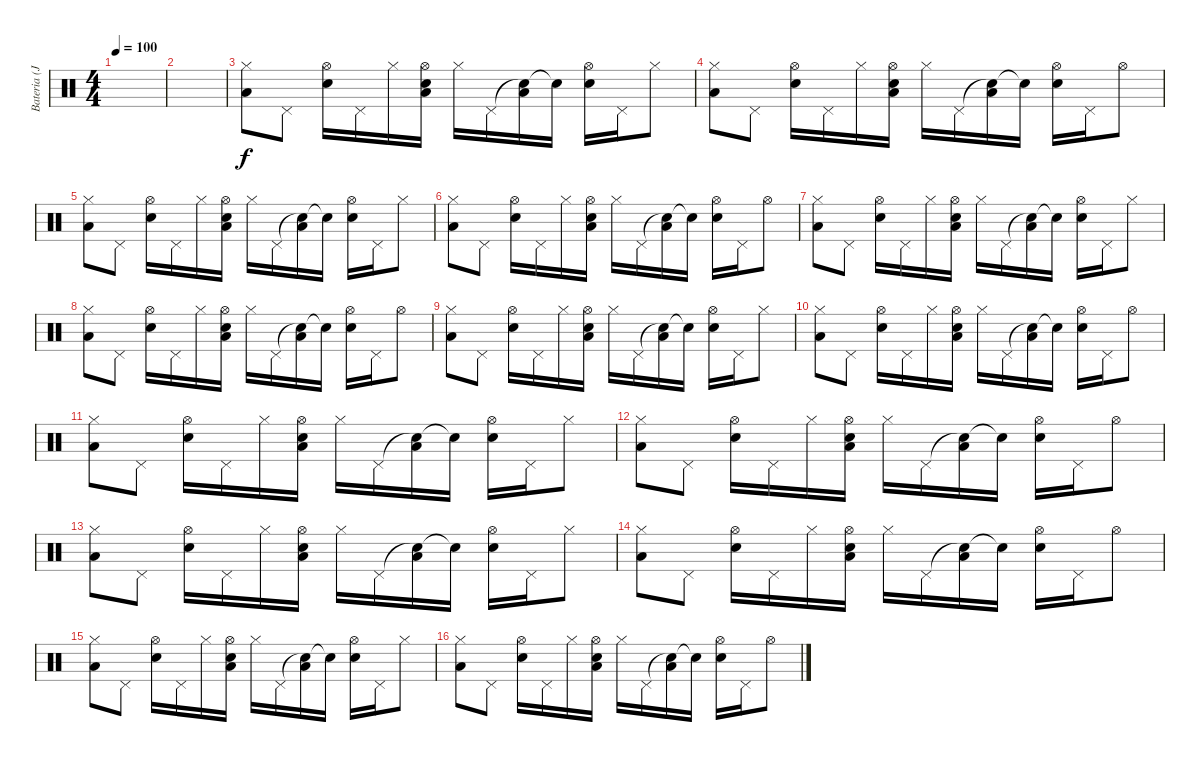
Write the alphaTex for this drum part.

\track ("Bateria (John)" "Bateria (J") {instrument percussion}
\staff {score}
\articulation defaults
\ts (4 4)
\tempo 100
\clef neutral
\ks c
|
|
("Hi-Hat (closed)" "Low Tom (hit)").8 "Pedal Hi-Hat (hit)".8 ("Hi-Hat (open)" "Electric Snare (hit)").16 "Pedal Hi-Hat (hit)".16 "Hi-Hat (closed)".16 ("Hi-Hat (open)" "Electric Snare (hit)" "Low Tom (hit)").16 "Hi-Hat (closed)".16 "Pedal Hi-Hat (hit)".16 ("Snare (hit)"{t} "Low Tom (hit)").16 "Snare (hit)"{t}.16 ("Hi-Hat (open)" "Electric Snare (hit)").16 "Pedal Hi-Hat (hit)".16 "Hi-Hat (closed)".8 |
("Hi-Hat (closed)" "Low Tom (hit)").8 "Pedal Hi-Hat (hit)".8 ("Hi-Hat (open)" "Electric Snare (hit)").16 "Pedal Hi-Hat (hit)".16 "Hi-Hat (closed)".16 ("Hi-Hat (open)" "Electric Snare (hit)" "Low Tom (hit)").16 "Hi-Hat (closed)".16 "Pedal Hi-Hat (hit)".16 ("Snare (hit)"{t} "Low Tom (hit)").16 "Snare (hit)"{t}.16 ("Hi-Hat (open)" "Electric Snare (hit)").16 "Pedal Hi-Hat (hit)".16 "Hi-Hat (open)".8 |
("Hi-Hat (closed)" "Low Tom (hit)").8 "Pedal Hi-Hat (hit)".8 ("Hi-Hat (open)" "Electric Snare (hit)").16 "Pedal Hi-Hat (hit)".16 "Hi-Hat (closed)".16 ("Hi-Hat (open)" "Electric Snare (hit)" "Low Tom (hit)").16 "Hi-Hat (closed)".16 "Pedal Hi-Hat (hit)".16 ("Snare (hit)"{t} "Low Tom (hit)").16 "Snare (hit)"{t}.16 ("Hi-Hat (open)" "Electric Snare (hit)").16 "Pedal Hi-Hat (hit)".16 "Hi-Hat (closed)".8 |
("Hi-Hat (closed)" "Low Tom (hit)").8 "Pedal Hi-Hat (hit)".8 ("Hi-Hat (open)" "Electric Snare (hit)").16 "Pedal Hi-Hat (hit)".16 "Hi-Hat (closed)".16 ("Hi-Hat (open)" "Electric Snare (hit)" "Low Tom (hit)").16 "Hi-Hat (closed)".16 "Pedal Hi-Hat (hit)".16 ("Snare (hit)"{t} "Low Tom (hit)").16 "Snare (hit)"{t}.16 ("Hi-Hat (open)" "Electric Snare (hit)").16 "Pedal Hi-Hat (hit)".16 "Hi-Hat (open)".8 |
("Hi-Hat (closed)" "Low Tom (hit)").8 "Pedal Hi-Hat (hit)".8 ("Hi-Hat (open)" "Electric Snare (hit)").16 "Pedal Hi-Hat (hit)".16 "Hi-Hat (closed)".16 ("Hi-Hat (open)" "Electric Snare (hit)" "Low Tom (hit)").16 "Hi-Hat (closed)".16 "Pedal Hi-Hat (hit)".16 ("Snare (hit)"{t} "Low Tom (hit)").16 "Snare (hit)"{t}.16 ("Hi-Hat (open)" "Electric Snare (hit)").16 "Pedal Hi-Hat (hit)".16 "Hi-Hat (closed)".8 |
("Hi-Hat (closed)" "Low Tom (hit)").8 "Pedal Hi-Hat (hit)".8 ("Hi-Hat (open)" "Electric Snare (hit)").16 "Pedal Hi-Hat (hit)".16 "Hi-Hat (closed)".16 ("Hi-Hat (open)" "Electric Snare (hit)" "Low Tom (hit)").16 "Hi-Hat (closed)".16 "Pedal Hi-Hat (hit)".16 ("Snare (hit)"{t} "Low Tom (hit)").16 "Snare (hit)"{t}.16 ("Hi-Hat (open)" "Electric Snare (hit)").16 "Pedal Hi-Hat (hit)".16 "Hi-Hat (open)".8 |
("Hi-Hat (closed)" "Low Tom (hit)").8 "Pedal Hi-Hat (hit)".8 ("Hi-Hat (open)" "Electric Snare (hit)").16 "Pedal Hi-Hat (hit)".16 "Hi-Hat (closed)".16 ("Hi-Hat (open)" "Electric Snare (hit)" "Low Tom (hit)").16 "Hi-Hat (closed)".16 "Pedal Hi-Hat (hit)".16 ("Snare (hit)"{t} "Low Tom (hit)").16 "Snare (hit)"{t}.16 ("Hi-Hat (open)" "Electric Snare (hit)").16 "Pedal Hi-Hat (hit)".16 "Hi-Hat (closed)".8 |
("Hi-Hat (closed)" "Low Tom (hit)").8 "Pedal Hi-Hat (hit)".8 ("Hi-Hat (open)" "Electric Snare (hit)").16 "Pedal Hi-Hat (hit)".16 "Hi-Hat (closed)".16 ("Hi-Hat (open)" "Electric Snare (hit)" "Low Tom (hit)").16 "Hi-Hat (closed)".16 "Pedal Hi-Hat (hit)".16 ("Snare (hit)"{t} "Low Tom (hit)").16 "Snare (hit)"{t}.16 ("Hi-Hat (open)" "Electric Snare (hit)").16 "Pedal Hi-Hat (hit)".16 "Hi-Hat (open)".8 |
("Hi-Hat (closed)" "Low Tom (hit)").8 "Pedal Hi-Hat (hit)".8 ("Hi-Hat (open)" "Electric Snare (hit)").16 "Pedal Hi-Hat (hit)".16 "Hi-Hat (closed)".16 ("Hi-Hat (open)" "Electric Snare (hit)" "Low Tom (hit)").16 "Hi-Hat (closed)".16 "Pedal Hi-Hat (hit)".16 ("Snare (hit)"{t} "Low Tom (hit)").16 "Snare (hit)"{t}.16 ("Hi-Hat (open)" "Electric Snare (hit)").16 "Pedal Hi-Hat (hit)".16 "Hi-Hat (closed)".8 |
("Hi-Hat (closed)" "Low Tom (hit)").8 "Pedal Hi-Hat (hit)".8 ("Hi-Hat (open)" "Electric Snare (hit)").16 "Pedal Hi-Hat (hit)".16 "Hi-Hat (closed)".16 ("Hi-Hat (open)" "Electric Snare (hit)" "Low Tom (hit)").16 "Hi-Hat (closed)".16 "Pedal Hi-Hat (hit)".16 ("Snare (hit)"{t} "Low Tom (hit)").16 "Snare (hit)"{t}.16 ("Hi-Hat (open)" "Electric Snare (hit)").16 "Pedal Hi-Hat (hit)".16 "Hi-Hat (open)".8 |
("Hi-Hat (closed)" "Low Tom (hit)").8 "Pedal Hi-Hat (hit)".8 ("Hi-Hat (open)" "Electric Snare (hit)").16 "Pedal Hi-Hat (hit)".16 "Hi-Hat (closed)".16 ("Hi-Hat (open)" "Electric Snare (hit)" "Low Tom (hit)").16 "Hi-Hat (closed)".16 "Pedal Hi-Hat (hit)".16 ("Snare (hit)"{t} "Low Tom (hit)").16 "Snare (hit)"{t}.16 ("Hi-Hat (open)" "Electric Snare (hit)").16 "Pedal Hi-Hat (hit)".16 "Hi-Hat (closed)".8 |
("Hi-Hat (closed)" "Low Tom (hit)").8 "Pedal Hi-Hat (hit)".8 ("Hi-Hat (open)" "Electric Snare (hit)").16 "Pedal Hi-Hat (hit)".16 "Hi-Hat (closed)".16 ("Hi-Hat (open)" "Electric Snare (hit)" "Low Tom (hit)").16 "Hi-Hat (closed)".16 "Pedal Hi-Hat (hit)".16 ("Snare (hit)"{t} "Low Tom (hit)").16 "Snare (hit)"{t}.16 ("Hi-Hat (open)" "Electric Snare (hit)").16 "Pedal Hi-Hat (hit)".16 "Hi-Hat (open)".8 |
("Hi-Hat (closed)" "Low Tom (hit)").8 "Pedal Hi-Hat (hit)".8 ("Hi-Hat (open)" "Electric Snare (hit)").16 "Pedal Hi-Hat (hit)".16 "Hi-Hat (closed)".16 ("Hi-Hat (open)" "Electric Snare (hit)" "Low Tom (hit)").16 "Hi-Hat (closed)".16 "Pedal Hi-Hat (hit)".16 ("Snare (hit)"{t} "Low Tom (hit)").16 "Snare (hit)"{t}.16 ("Hi-Hat (open)" "Electric Snare (hit)").16 "Pedal Hi-Hat (hit)".16 "Hi-Hat (closed)".8 |
("Hi-Hat (closed)" "Low Tom (hit)").8 "Pedal Hi-Hat (hit)".8 ("Hi-Hat (open)" "Electric Snare (hit)").16 "Pedal Hi-Hat (hit)".16 "Hi-Hat (closed)".16 ("Hi-Hat (open)" "Electric Snare (hit)" "Low Tom (hit)").16 "Hi-Hat (closed)".16 "Pedal Hi-Hat (hit)".16 ("Snare (hit)"{t} "Low Tom (hit)").16 "Snare (hit)"{t}.16 ("Hi-Hat (open)" "Electric Snare (hit)").16 "Pedal Hi-Hat (hit)".16 "Hi-Hat (open)".8
